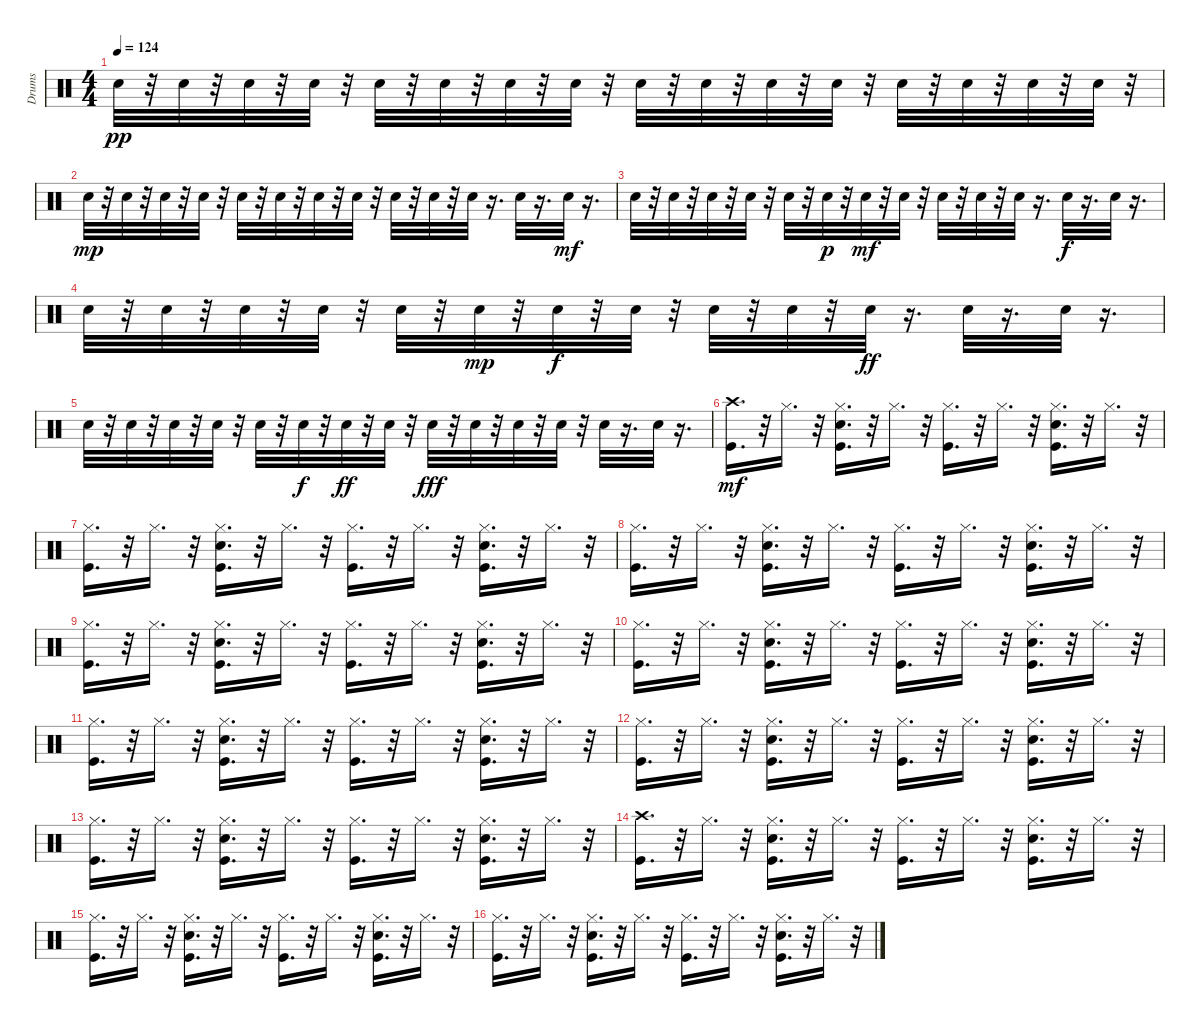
\track ("Drums" "Drums") {instrument percussion}
\staff {score}
\articulation defaults
\ts (4 4)
\tempo 124
\clef neutral
\ks c "Snare (hit) 2".32{dy pp}
r.32 "Snare (hit) 2".32 r.32 "Snare (hit) 2".32 r.32 "Snare (hit) 2".32 r.32 "Snare (hit) 2".32 r.32 "Snare (hit) 2".32 r.32 "Snare (hit) 2".32 r.32 "Snare (hit) 2".32 r.32 "Snare (hit) 2".32 r.32 "Snare (hit) 2".32 r.32 "Snare (hit) 2".32 r.32 "Snare (hit) 2".32 r.32 "Snare (hit) 2".32 r.32 "Snare (hit) 2".32 r.32 "Snare (hit) 2".32 r.32 "Snare (hit) 2".32 r.32 |
"Snare (hit) 2".32{dy mp} r.32 "Snare (hit) 2".32 r.32 "Snare (hit) 2".32 r.32 "Snare (hit) 2".32 r.32 "Snare (hit) 2".32 r.32 "Snare (hit) 2".32 r.32 "Snare (hit) 2".32 r.32 "Snare (hit) 2".32 r.32 "Snare (hit) 2".32 r.32 "Snare (hit) 2".32 r.32 "Snare (hit) 2".32 r.16{d} "Snare (hit) 2".32 r.16{d} "Snare (hit) 2".32{dy mf} r.16{d} |
"Snare (hit) 2".32 r.32 "Snare (hit) 2".32 r.32 "Snare (hit) 2".32 r.32 "Snare (hit) 2".32 r.32 "Snare (hit) 2".32 r.32 "Snare (hit) 2".32{dy p} r.32 "Snare (hit) 2".32{dy mf} r.32 "Snare (hit) 2".32 r.32 "Snare (hit) 2".32 r.32 "Snare (hit) 2".32 r.32 "Snare (hit) 2".32 r.16{d} "Snare (hit) 2".32{dy f} r.16{d} "Snare (hit) 2".32 r.16{d} |
"Snare (hit) 2".32 r.32 "Snare (hit) 2".32 r.32 "Snare (hit) 2".32 r.32 "Snare (hit) 2".32 r.32 "Snare (hit) 2".32 r.32 "Snare (hit) 2".32{dy mp} r.32 "Snare (hit) 2".32{dy f} r.32 "Snare (hit) 2".32 r.32 "Snare (hit) 2".32 r.32 "Snare (hit) 2".32 r.32 "Snare (hit) 2".32{dy ff} r.16{d} "Snare (hit) 2".32 r.16{d} "Snare (hit) 2".32 r.16{d} |
"Snare (hit) 2".32 r.32 "Snare (hit) 2".32 r.32 "Snare (hit) 2".32 r.32 "Snare (hit) 2".32 r.32 "Snare (hit) 2".32 r.32 "Snare (hit) 2".32{dy f} r.32 "Snare (hit) 2".32{dy ff} r.32 "Snare (hit) 2".32 r.32 "Snare (hit) 2".32{dy fff} r.32 "Snare (hit) 2".32 r.32 "Snare (hit) 2".32 r.32 "Snare (hit) 2".32 r.32 "Snare (hit) 2".32 r.16{d} "Snare (hit) 2".32 r.16{d} |
("Kick (hit)" "Crash high (hit)").16{d dy mf} r.32 "Hi-Hat (closed)".16{d} r.32 ("Kick (hit)" "Snare (hit) 2" "Hi-Hat (closed)").16{d} r.32 "Hi-Hat (closed)".16{d} r.32 ("Kick (hit)" "Hi-Hat (closed)").16{d} r.32 "Hi-Hat (closed)".16{d} r.32 ("Kick (hit)" "Snare (hit) 2" "Hi-Hat (closed)").16{d} r.32 "Hi-Hat (closed)".16{d} r.32 |
("Kick (hit)" "Hi-Hat (closed)").16{d} r.32 "Hi-Hat (closed)".16{d} r.32 ("Kick (hit)" "Snare (hit) 2" "Hi-Hat (closed)").16{d} r.32 "Hi-Hat (closed)".16{d} r.32 ("Kick (hit)" "Hi-Hat (closed)").16{d} r.32 "Hi-Hat (closed)".16{d} r.32 ("Kick (hit)" "Snare (hit) 2" "Hi-Hat (closed)").16{d} r.32 "Hi-Hat (closed)".16{d} r.32 |
("Kick (hit)" "Hi-Hat (closed)").16{d} r.32 "Hi-Hat (closed)".16{d} r.32 ("Kick (hit)" "Snare (hit) 2" "Hi-Hat (closed)").16{d} r.32 "Hi-Hat (closed)".16{d} r.32 ("Kick (hit)" "Hi-Hat (closed)").16{d} r.32 "Hi-Hat (closed)".16{d} r.32 ("Kick (hit)" "Snare (hit) 2" "Hi-Hat (closed)").16{d} r.32 "Hi-Hat (closed)".16{d} r.32 |
("Kick (hit)" "Hi-Hat (closed)").16{d} r.32 "Hi-Hat (closed)".16{d} r.32 ("Kick (hit)" "Snare (hit) 2" "Hi-Hat (closed)").16{d} r.32 "Hi-Hat (closed)".16{d} r.32 ("Kick (hit)" "Hi-Hat (closed)").16{d} r.32 "Hi-Hat (closed)".16{d} r.32 ("Kick (hit)" "Snare (hit) 2" "Hi-Hat (closed)").16{d} r.32 "Hi-Hat (closed)".16{d} r.32 |
("Kick (hit)" "Hi-Hat (closed)").16{d} r.32 "Hi-Hat (closed)".16{d} r.32 ("Kick (hit)" "Snare (hit) 2" "Hi-Hat (closed)").16{d} r.32 "Hi-Hat (closed)".16{d} r.32 ("Kick (hit)" "Hi-Hat (closed)").16{d} r.32 "Hi-Hat (closed)".16{d} r.32 ("Kick (hit)" "Snare (hit) 2" "Hi-Hat (closed)").16{d} r.32 "Hi-Hat (closed)".16{d} r.32 |
("Kick (hit)" "Hi-Hat (closed)").16{d} r.32 "Hi-Hat (closed)".16{d} r.32 ("Kick (hit)" "Snare (hit) 2" "Hi-Hat (closed)").16{d} r.32 "Hi-Hat (closed)".16{d} r.32 ("Kick (hit)" "Hi-Hat (closed)").16{d} r.32 "Hi-Hat (closed)".16{d} r.32 ("Kick (hit)" "Snare (hit) 2" "Hi-Hat (closed)").16{d} r.32 "Hi-Hat (closed)".16{d} r.32 |
("Kick (hit)" "Hi-Hat (closed)").16{d} r.32 "Hi-Hat (closed)".16{d} r.32 ("Kick (hit)" "Snare (hit) 2" "Hi-Hat (closed)").16{d} r.32 "Hi-Hat (closed)".16{d} r.32 ("Kick (hit)" "Hi-Hat (closed)").16{d} r.32 "Hi-Hat (closed)".16{d} r.32 ("Kick (hit)" "Snare (hit) 2" "Hi-Hat (closed)").16{d} r.32 "Hi-Hat (closed)".16{d} r.32 |
("Kick (hit)" "Hi-Hat (closed)").16{d} r.32 "Hi-Hat (closed)".16{d} r.32 ("Kick (hit)" "Snare (hit) 2" "Hi-Hat (closed)").16{d} r.32 "Hi-Hat (closed)".16{d} r.32 ("Kick (hit)" "Hi-Hat (closed)").16{d} r.32 "Hi-Hat (closed)".16{d} r.32 ("Kick (hit)" "Snare (hit) 2" "Hi-Hat (closed)").16{d} r.32 "Hi-Hat (closed)".16{d} r.32 |
("Kick (hit)" "Crash high (hit)").16{d} r.32 "Hi-Hat (closed)".16{d} r.32 ("Kick (hit)" "Snare (hit) 2" "Hi-Hat (closed)").16{d} r.32 "Hi-Hat (closed)".16{d} r.32 ("Kick (hit)" "Hi-Hat (closed)").16{d} r.32 "Hi-Hat (closed)".16{d} r.32 ("Kick (hit)" "Snare (hit) 2" "Hi-Hat (closed)").16{d} r.32 "Hi-Hat (closed)".16{d} r.32 |
("Kick (hit)" "Hi-Hat (closed)").16{d} r.32 "Hi-Hat (closed)".16{d} r.32 ("Kick (hit)" "Snare (hit) 2" "Hi-Hat (closed)").16{d} r.32 "Hi-Hat (closed)".16{d} r.32 ("Kick (hit)" "Hi-Hat (closed)").16{d} r.32 "Hi-Hat (closed)".16{d} r.32 ("Kick (hit)" "Snare (hit) 2" "Hi-Hat (closed)").16{d} r.32 "Hi-Hat (closed)".16{d} r.32 |
("Kick (hit)" "Hi-Hat (closed)").16{d} r.32 "Hi-Hat (closed)".16{d} r.32 ("Kick (hit)" "Snare (hit) 2" "Hi-Hat (closed)").16{d} r.32 "Hi-Hat (closed)".16{d} r.32 ("Kick (hit)" "Hi-Hat (closed)").16{d} r.32 "Hi-Hat (closed)".16{d} r.32 ("Kick (hit)" "Snare (hit) 2" "Hi-Hat (closed)").16{d} r.32 "Hi-Hat (closed)".16{d} r.32
